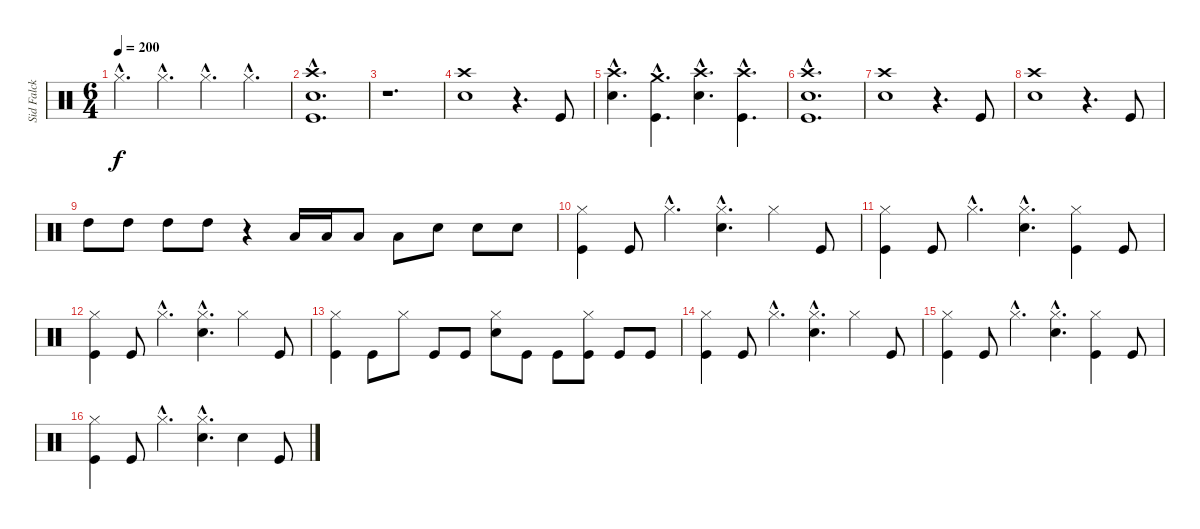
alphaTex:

\track ("Sid Falck - drums" "Sid Falck ") {instrument percussion}
\staff {score}
\articulation defaults
\ts (6 4)
\tempo 200
\clef neutral
\ks c "Hi-Hat (closed)"{hac}.4{d dy f} "Hi-Hat (closed)"{hac}.4{d} "Hi-Hat (closed)"{hac}.4{d} "Hi-Hat (closed)"{hac}.4{d}
|
("Crash high (hit)"{hac} "Electric Snare (hit)"{hac} "Kick (hit)"{hac}).1{d} |
r.1{d} |
("Crash high (hit)" "Electric Snare (hit)").1 r.4{d} "Kick (hit)".8 |
("Crash high (hit)"{hac} "Electric Snare (hit)"{hac}).4{d} ("Crash medium (hit)"{hac} "Kick (hit)"{hac}).4{d} ("Crash high (hit)"{hac} "Electric Snare (hit)"{hac}).4{d} ("Crash high (hit)"{hac} "Kick (hit)"{hac}).4{d} |
("Crash high (hit)"{hac} "Electric Snare (hit)"{hac} "Kick (hit)"{hac}).1{d} |
("Crash high (hit)" "Electric Snare (hit)").1 r.4{d} "Kick (hit)".8 |
("Crash high (hit)" "Electric Snare (hit)").1 r.4{d} "Kick (hit)".8 |
"High Tom (hit)".8 "High Tom (hit)".8 "High Tom (hit)".8 "High Tom (hit)".8 r.4 "Low Tom (hit)".16 "Low Tom (hit)".16 "Low Tom (hit)".8 "Low Tom (hit)".8 "Electric Snare (hit)".8 "Electric Snare (hit)".8 "Electric Snare (hit)".8 |
("Hi-Hat (closed)" "Kick (hit)").4 "Kick (hit)".8 "Hi-Hat (closed)"{hac}.4{d} ("Hi-Hat (closed)"{hac} "Electric Snare (hit)"{hac}).4{d} "Hi-Hat (closed)".4 "Kick (hit)".8 |
("Hi-Hat (closed)" "Kick (hit)").4 "Kick (hit)".8 "Hi-Hat (closed)"{hac}.4{d} ("Hi-Hat (closed)"{hac} "Electric Snare (hit)"{hac}).4{d} ("Hi-Hat (closed)" "Kick (hit)").4 "Kick (hit)".8 |
("Hi-Hat (closed)" "Kick (hit)").4 "Kick (hit)".8 "Hi-Hat (closed)"{hac}.4{d} ("Hi-Hat (closed)"{hac} "Electric Snare (hit)"{hac}).4{d} "Hi-Hat (closed)".4 "Kick (hit)".8 |
("Hi-Hat (closed)" "Kick (hit)").4 "Kick (hit)".8 "Hi-Hat (closed)".8 "Kick (hit)".8 "Kick (hit)".8 ("Hi-Hat (closed)" "Electric Snare (hit)").8 "Kick (hit)".8 "Kick (hit)".8 ("Hi-Hat (closed)" "Kick (hit)").8 "Kick (hit)".8 "Kick (hit)".8 |
("Hi-Hat (closed)" "Kick (hit)").4 "Kick (hit)".8 "Hi-Hat (closed)"{hac}.4{d} ("Hi-Hat (closed)"{hac} "Electric Snare (hit)"{hac}).4{d} "Hi-Hat (closed)".4 "Kick (hit)".8 |
("Hi-Hat (closed)" "Kick (hit)").4 "Kick (hit)".8 "Hi-Hat (closed)"{hac}.4{d} ("Hi-Hat (closed)"{hac} "Electric Snare (hit)"{hac}).4{d} ("Hi-Hat (closed)" "Kick (hit)").4 "Kick (hit)".8 |
("Hi-Hat (closed)" "Kick (hit)").4 "Kick (hit)".8 "Hi-Hat (closed)"{hac}.4{d} ("Hi-Hat (closed)"{hac} "Electric Snare (hit)"{hac}).4{d} "Electric Snare (hit)".4 "Kick (hit)".8
